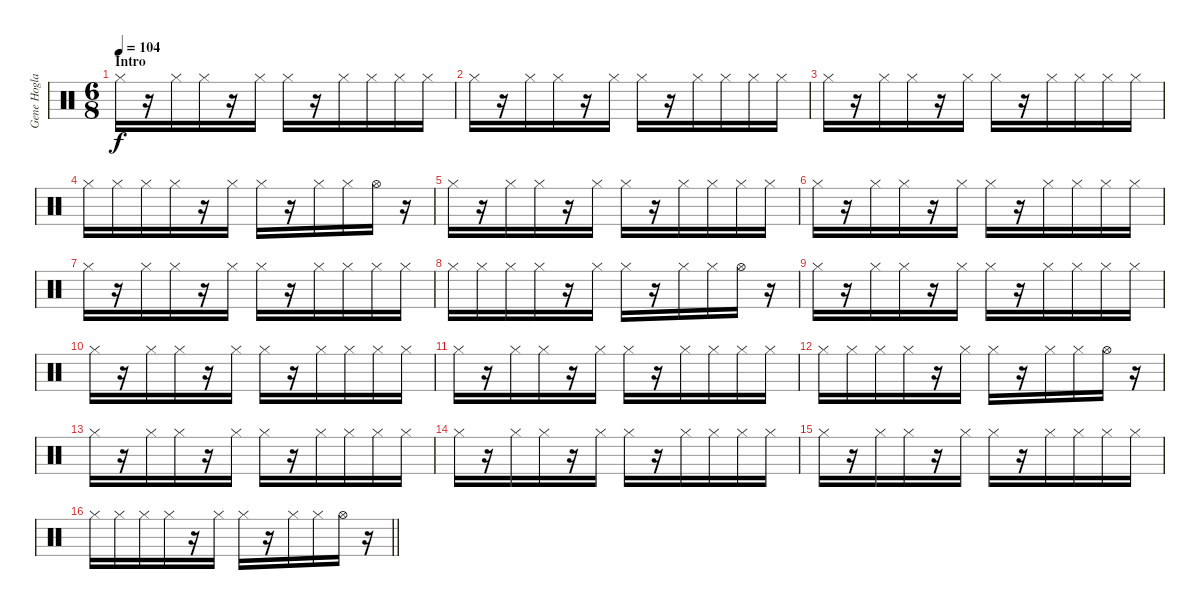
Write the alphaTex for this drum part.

\track ("Gene Hoglan" "Gene Hogla") {instrument percussion}
\staff {score}
\articulation defaults
\ts (6 8)
\section ("" "Intro")
\tempo 104
\clef neutral
\ks c "Hi-Hat (closed)".16{dy f}
r.16 "Hi-Hat (closed)".16 "Hi-Hat (closed)".16 r.16 "Hi-Hat (closed)".16 "Hi-Hat (closed)".16 r.16 "Hi-Hat (closed)".16 "Hi-Hat (closed)".16 "Hi-Hat (closed)".16 "Hi-Hat (closed)".16 |
"Hi-Hat (closed)".16 r.16 "Hi-Hat (closed)".16 "Hi-Hat (closed)".16 r.16 "Hi-Hat (closed)".16 "Hi-Hat (closed)".16 r.16 "Hi-Hat (closed)".16 "Hi-Hat (closed)".16 "Hi-Hat (closed)".16 "Hi-Hat (closed)".16 |
"Hi-Hat (closed)".16 r.16 "Hi-Hat (closed)".16 "Hi-Hat (closed)".16 r.16 "Hi-Hat (closed)".16 "Hi-Hat (closed)".16 r.16 "Hi-Hat (closed)".16 "Hi-Hat (closed)".16 "Hi-Hat (closed)".16 "Hi-Hat (closed)".16 |
"Hi-Hat (closed)".16 "Hi-Hat (closed)".16 "Hi-Hat (closed)".16 "Hi-Hat (closed)".16 r.16 "Hi-Hat (closed)".16 "Hi-Hat (closed)".16 r.16 "Hi-Hat (closed)".16 "Hi-Hat (closed)".16 "Hi-Hat (open)".16 r.16 |
"Hi-Hat (closed)".16 r.16 "Hi-Hat (closed)".16 "Hi-Hat (closed)".16 r.16 "Hi-Hat (closed)".16 "Hi-Hat (closed)".16 r.16 "Hi-Hat (closed)".16 "Hi-Hat (closed)".16 "Hi-Hat (closed)".16 "Hi-Hat (closed)".16 |
"Hi-Hat (closed)".16 r.16 "Hi-Hat (closed)".16 "Hi-Hat (closed)".16 r.16 "Hi-Hat (closed)".16 "Hi-Hat (closed)".16 r.16 "Hi-Hat (closed)".16 "Hi-Hat (closed)".16 "Hi-Hat (closed)".16 "Hi-Hat (closed)".16 |
"Hi-Hat (closed)".16 r.16 "Hi-Hat (closed)".16 "Hi-Hat (closed)".16 r.16 "Hi-Hat (closed)".16 "Hi-Hat (closed)".16 r.16 "Hi-Hat (closed)".16 "Hi-Hat (closed)".16 "Hi-Hat (closed)".16 "Hi-Hat (closed)".16 |
"Hi-Hat (closed)".16 "Hi-Hat (closed)".16 "Hi-Hat (closed)".16 "Hi-Hat (closed)".16 r.16 "Hi-Hat (closed)".16 "Hi-Hat (closed)".16 r.16 "Hi-Hat (closed)".16 "Hi-Hat (closed)".16 "Hi-Hat (open)".16 r.16 |
"Hi-Hat (closed)".16 r.16 "Hi-Hat (closed)".16 "Hi-Hat (closed)".16 r.16 "Hi-Hat (closed)".16 "Hi-Hat (closed)".16 r.16 "Hi-Hat (closed)".16 "Hi-Hat (closed)".16 "Hi-Hat (closed)".16 "Hi-Hat (closed)".16 |
"Hi-Hat (closed)".16 r.16 "Hi-Hat (closed)".16 "Hi-Hat (closed)".16 r.16 "Hi-Hat (closed)".16 "Hi-Hat (closed)".16 r.16 "Hi-Hat (closed)".16 "Hi-Hat (closed)".16 "Hi-Hat (closed)".16 "Hi-Hat (closed)".16 |
"Hi-Hat (closed)".16 r.16 "Hi-Hat (closed)".16 "Hi-Hat (closed)".16 r.16 "Hi-Hat (closed)".16 "Hi-Hat (closed)".16 r.16 "Hi-Hat (closed)".16 "Hi-Hat (closed)".16 "Hi-Hat (closed)".16 "Hi-Hat (closed)".16 |
"Hi-Hat (closed)".16 "Hi-Hat (closed)".16 "Hi-Hat (closed)".16 "Hi-Hat (closed)".16 r.16 "Hi-Hat (closed)".16 "Hi-Hat (closed)".16 r.16 "Hi-Hat (closed)".16 "Hi-Hat (closed)".16 "Hi-Hat (open)".16 r.16 |
"Hi-Hat (closed)".16 r.16 "Hi-Hat (closed)".16 "Hi-Hat (closed)".16 r.16 "Hi-Hat (closed)".16 "Hi-Hat (closed)".16 r.16 "Hi-Hat (closed)".16 "Hi-Hat (closed)".16 "Hi-Hat (closed)".16 "Hi-Hat (closed)".16 |
"Hi-Hat (closed)".16 r.16 "Hi-Hat (closed)".16 "Hi-Hat (closed)".16 r.16 "Hi-Hat (closed)".16 "Hi-Hat (closed)".16 r.16 "Hi-Hat (closed)".16 "Hi-Hat (closed)".16 "Hi-Hat (closed)".16 "Hi-Hat (closed)".16 |
"Hi-Hat (closed)".16 r.16 "Hi-Hat (closed)".16 "Hi-Hat (closed)".16 r.16 "Hi-Hat (closed)".16 "Hi-Hat (closed)".16 r.16 "Hi-Hat (closed)".16 "Hi-Hat (closed)".16 "Hi-Hat (closed)".16 "Hi-Hat (closed)".16 |
\barLineRight lightlight "Hi-Hat (closed)".16 "Hi-Hat (closed)".16 "Hi-Hat (closed)".16 "Hi-Hat (closed)".16
r.16 "Hi-Hat (closed)".16 "Hi-Hat (closed)".16 r.16 "Hi-Hat (closed)".16 "Hi-Hat (closed)".16 "Hi-Hat (open)".16 r.16
